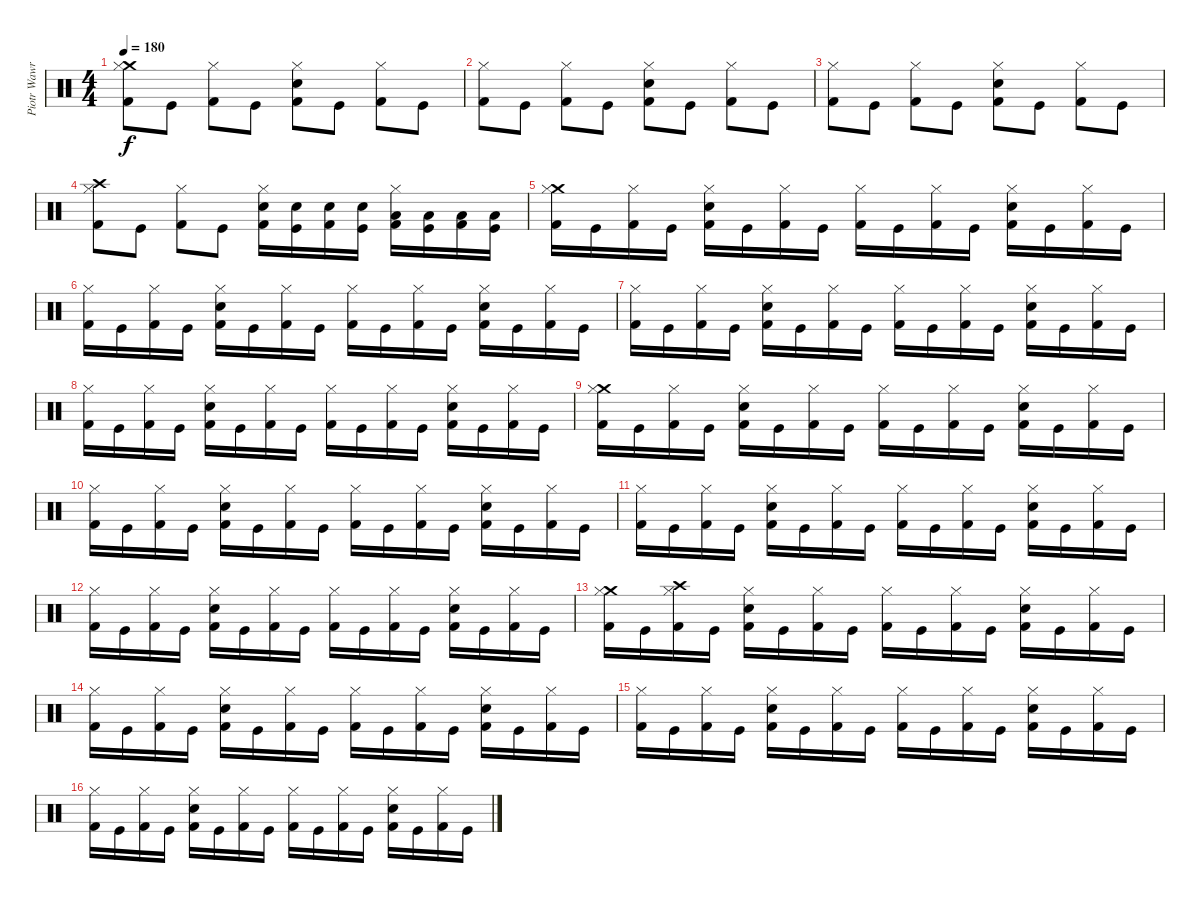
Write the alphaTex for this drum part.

\track ("Piotr Wawrzeniuk" "Piotr Wawr") {instrument percussion}
\staff {score}
\articulation defaults
\ts (4 4)
\tempo 180
\clef neutral
\ks c
("Crash medium (hit)" "Hi-Hat (closed)" "Kick (hit) 2").8{dy f} "Kick (hit)".8 ("Hi-Hat (closed)" "Kick (hit) 2").8 "Kick (hit)".8 ("Snare (hit) 2" "Hi-Hat (closed)" "Kick (hit) 2").8 "Kick (hit)".8 ("Hi-Hat (closed)" "Kick (hit) 2").8 "Kick (hit)".8 |
("Hi-Hat (closed)" "Kick (hit) 2").8 "Kick (hit)".8 ("Hi-Hat (closed)" "Kick (hit) 2").8 "Kick (hit)".8 ("Snare (hit) 2" "Hi-Hat (closed)" "Kick (hit) 2").8 "Kick (hit)".8 ("Hi-Hat (closed)" "Kick (hit) 2").8 "Kick (hit)".8 |
("Hi-Hat (closed)" "Kick (hit) 2").8 "Kick (hit)".8 ("Hi-Hat (closed)" "Kick (hit) 2").8 "Kick (hit)".8 ("Snare (hit) 2" "Hi-Hat (closed)" "Kick (hit) 2").8 "Kick (hit)".8 ("Hi-Hat (closed)" "Kick (hit) 2").8 "Kick (hit)".8 |
("Crash high (hit)" "Hi-Hat (closed)" "Kick (hit) 2").8 "Kick (hit)".8 ("Hi-Hat (closed)" "Kick (hit) 2").8 "Kick (hit)".8 ("Snare (hit) 2" "Hi-Hat (closed)" "Kick (hit) 2").16 ("Snare (hit) 2" "Kick (hit)").16 ("Snare (hit) 2" "Kick (hit) 2").16 ("Snare (hit) 2" "Kick (hit)").16 ("Low Tom (hit)" "Hi-Hat (closed)" "Kick (hit) 2").16 ("Low Tom (hit)" "Kick (hit)").16 ("Low Tom (hit)" "Kick (hit) 2").16 ("Low Tom (hit)" "Kick (hit)").16 |
("Crash medium (hit)" "Hi-Hat (closed)" "Kick (hit) 2").16 "Kick (hit)".16 ("Hi-Hat (closed)" "Kick (hit) 2").16 "Kick (hit)".16 ("Snare (hit) 2" "Hi-Hat (closed)" "Kick (hit) 2").16 "Kick (hit)".16 ("Hi-Hat (closed)" "Kick (hit) 2").16 "Kick (hit)".16 ("Hi-Hat (closed)" "Kick (hit) 2").16 "Kick (hit)".16 ("Hi-Hat (closed)" "Kick (hit) 2").16 "Kick (hit)".16 ("Snare (hit) 2" "Hi-Hat (closed)" "Kick (hit) 2").16 "Kick (hit)".16 ("Hi-Hat (closed)" "Kick (hit) 2").16 "Kick (hit)".16 |
("Hi-Hat (closed)" "Kick (hit) 2").16 "Kick (hit)".16 ("Hi-Hat (closed)" "Kick (hit) 2").16 "Kick (hit)".16 ("Snare (hit) 2" "Hi-Hat (closed)" "Kick (hit) 2").16 "Kick (hit)".16 ("Hi-Hat (closed)" "Kick (hit) 2").16 "Kick (hit)".16 ("Hi-Hat (closed)" "Kick (hit) 2").16 "Kick (hit)".16 ("Hi-Hat (closed)" "Kick (hit) 2").16 "Kick (hit)".16 ("Snare (hit) 2" "Hi-Hat (closed)" "Kick (hit) 2").16 "Kick (hit)".16 ("Hi-Hat (closed)" "Kick (hit) 2").16 "Kick (hit)".16 |
("Hi-Hat (closed)" "Kick (hit) 2").16 "Kick (hit)".16 ("Hi-Hat (closed)" "Kick (hit) 2").16 "Kick (hit)".16 ("Snare (hit) 2" "Hi-Hat (closed)" "Kick (hit) 2").16 "Kick (hit)".16 ("Hi-Hat (closed)" "Kick (hit) 2").16 "Kick (hit)".16 ("Hi-Hat (closed)" "Kick (hit) 2").16 "Kick (hit)".16 ("Hi-Hat (closed)" "Kick (hit) 2").16 "Kick (hit)".16 ("Snare (hit) 2" "Hi-Hat (closed)" "Kick (hit) 2").16 "Kick (hit)".16 ("Hi-Hat (closed)" "Kick (hit) 2").16 "Kick (hit)".16 |
("Hi-Hat (closed)" "Kick (hit) 2").16 "Kick (hit)".16 ("Hi-Hat (closed)" "Kick (hit) 2").16 "Kick (hit)".16 ("Snare (hit) 2" "Hi-Hat (closed)" "Kick (hit) 2").16 "Kick (hit)".16 ("Hi-Hat (closed)" "Kick (hit) 2").16 "Kick (hit)".16 ("Hi-Hat (closed)" "Kick (hit) 2").16 "Kick (hit)".16 ("Hi-Hat (closed)" "Kick (hit) 2").16 "Kick (hit)".16 ("Snare (hit) 2" "Hi-Hat (closed)" "Kick (hit) 2").16 "Kick (hit)".16 ("Hi-Hat (closed)" "Kick (hit) 2").16 "Kick (hit)".16 |
("Crash medium (hit)" "Hi-Hat (closed)" "Kick (hit) 2").16 "Kick (hit)".16 ("Hi-Hat (closed)" "Kick (hit) 2").16 "Kick (hit)".16 ("Snare (hit) 2" "Hi-Hat (closed)" "Kick (hit) 2").16 "Kick (hit)".16 ("Hi-Hat (closed)" "Kick (hit) 2").16 "Kick (hit)".16 ("Hi-Hat (closed)" "Kick (hit) 2").16 "Kick (hit)".16 ("Hi-Hat (closed)" "Kick (hit) 2").16 "Kick (hit)".16 ("Snare (hit) 2" "Hi-Hat (closed)" "Kick (hit) 2").16 "Kick (hit)".16 ("Hi-Hat (closed)" "Kick (hit) 2").16 "Kick (hit)".16 |
("Hi-Hat (closed)" "Kick (hit) 2").16 "Kick (hit)".16 ("Hi-Hat (closed)" "Kick (hit) 2").16 "Kick (hit)".16 ("Snare (hit) 2" "Hi-Hat (closed)" "Kick (hit) 2").16 "Kick (hit)".16 ("Hi-Hat (closed)" "Kick (hit) 2").16 "Kick (hit)".16 ("Hi-Hat (closed)" "Kick (hit) 2").16 "Kick (hit)".16 ("Hi-Hat (closed)" "Kick (hit) 2").16 "Kick (hit)".16 ("Snare (hit) 2" "Hi-Hat (closed)" "Kick (hit) 2").16 "Kick (hit)".16 ("Hi-Hat (closed)" "Kick (hit) 2").16 "Kick (hit)".16 |
("Hi-Hat (closed)" "Kick (hit) 2").16 "Kick (hit)".16 ("Hi-Hat (closed)" "Kick (hit) 2").16 "Kick (hit)".16 ("Snare (hit) 2" "Hi-Hat (closed)" "Kick (hit) 2").16 "Kick (hit)".16 ("Hi-Hat (closed)" "Kick (hit) 2").16 "Kick (hit)".16 ("Hi-Hat (closed)" "Kick (hit) 2").16 "Kick (hit)".16 ("Hi-Hat (closed)" "Kick (hit) 2").16 "Kick (hit)".16 ("Snare (hit) 2" "Hi-Hat (closed)" "Kick (hit) 2").16 "Kick (hit)".16 ("Hi-Hat (closed)" "Kick (hit) 2").16 "Kick (hit)".16 |
("Hi-Hat (closed)" "Kick (hit) 2").16 "Kick (hit)".16 ("Hi-Hat (closed)" "Kick (hit) 2").16 "Kick (hit)".16 ("Snare (hit) 2" "Hi-Hat (closed)" "Kick (hit) 2").16 "Kick (hit)".16 ("Hi-Hat (closed)" "Kick (hit) 2").16 "Kick (hit)".16 ("Hi-Hat (closed)" "Kick (hit) 2").16 "Kick (hit)".16 ("Hi-Hat (closed)" "Kick (hit) 2").16 "Kick (hit)".16 ("Snare (hit) 2" "Hi-Hat (closed)" "Kick (hit) 2").16 "Kick (hit)".16 ("Hi-Hat (closed)" "Kick (hit) 2").16 "Kick (hit)".16 |
("Crash medium (hit)" "Hi-Hat (closed)" "Kick (hit) 2").16 "Kick (hit)".16 ("Crash high (hit)" "Hi-Hat (closed)" "Kick (hit) 2").16 "Kick (hit)".16 ("Snare (hit) 2" "Hi-Hat (closed)" "Kick (hit) 2").16 "Kick (hit)".16 ("Hi-Hat (closed)" "Kick (hit) 2").16 "Kick (hit)".16 ("Hi-Hat (closed)" "Kick (hit) 2").16 "Kick (hit)".16 ("Hi-Hat (closed)" "Kick (hit) 2").16 "Kick (hit)".16 ("Snare (hit) 2" "Hi-Hat (closed)" "Kick (hit) 2").16 "Kick (hit)".16 ("Hi-Hat (closed)" "Kick (hit) 2").16 "Kick (hit)".16 |
("Hi-Hat (closed)" "Kick (hit) 2").16 "Kick (hit)".16 ("Hi-Hat (closed)" "Kick (hit) 2").16 "Kick (hit)".16 ("Snare (hit) 2" "Hi-Hat (closed)" "Kick (hit) 2").16 "Kick (hit)".16 ("Hi-Hat (closed)" "Kick (hit) 2").16 "Kick (hit)".16 ("Hi-Hat (closed)" "Kick (hit) 2").16 "Kick (hit)".16 ("Hi-Hat (closed)" "Kick (hit) 2").16 "Kick (hit)".16 ("Snare (hit) 2" "Hi-Hat (closed)" "Kick (hit) 2").16 "Kick (hit)".16 ("Hi-Hat (closed)" "Kick (hit) 2").16 "Kick (hit)".16 |
("Hi-Hat (closed)" "Kick (hit) 2").16 "Kick (hit)".16 ("Hi-Hat (closed)" "Kick (hit) 2").16 "Kick (hit)".16 ("Snare (hit) 2" "Hi-Hat (closed)" "Kick (hit) 2").16 "Kick (hit)".16 ("Hi-Hat (closed)" "Kick (hit) 2").16 "Kick (hit)".16 ("Hi-Hat (closed)" "Kick (hit) 2").16 "Kick (hit)".16 ("Hi-Hat (closed)" "Kick (hit) 2").16 "Kick (hit)".16 ("Snare (hit) 2" "Hi-Hat (closed)" "Kick (hit) 2").16 "Kick (hit)".16 ("Hi-Hat (closed)" "Kick (hit) 2").16 "Kick (hit)".16 |
("Hi-Hat (closed)" "Kick (hit) 2").16 "Kick (hit)".16 ("Hi-Hat (closed)" "Kick (hit) 2").16 "Kick (hit)".16 ("Snare (hit) 2" "Hi-Hat (closed)" "Kick (hit) 2").16 "Kick (hit)".16 ("Hi-Hat (closed)" "Kick (hit) 2").16 "Kick (hit)".16 ("Hi-Hat (closed)" "Kick (hit) 2").16 "Kick (hit)".16 ("Hi-Hat (closed)" "Kick (hit) 2").16 "Kick (hit)".16 ("Snare (hit) 2" "Hi-Hat (closed)" "Kick (hit) 2").16 "Kick (hit)".16 ("Hi-Hat (closed)" "Kick (hit) 2").16 "Kick (hit)".16
